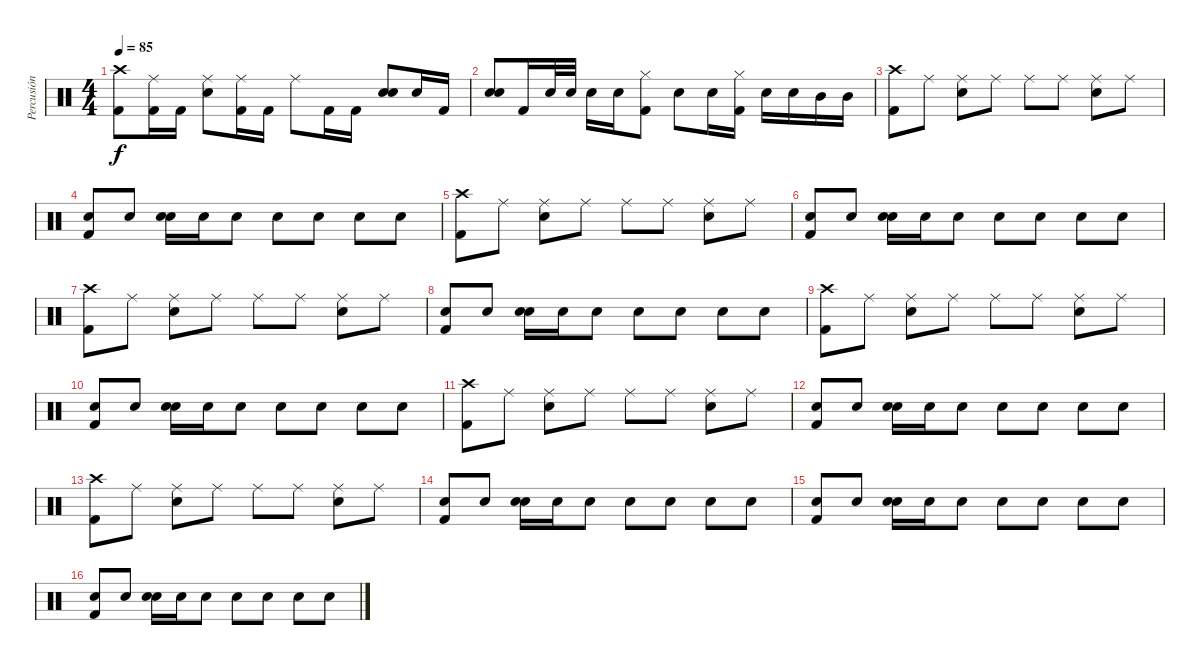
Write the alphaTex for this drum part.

\track ("Percusión" "Percusión") {instrument percussion}
\staff {score}
\articulation defaults
\ts (4 4)
\tempo 85
\clef neutral
\ks c
("Crash high (hit)"{x} "Kick (hit) 2").8{dy f} ("Ride (middle)"{x} "Kick (hit) 2").16 "Kick (hit) 2".16 ("Ride (middle)"{x} "Snare (hit) 2").8 ("Ride (middle)"{x} "Kick (hit) 2").16 "Kick (hit) 2".16 "Ride (middle)"{x}.8 "Kick (hit) 2".16 "Kick (hit) 2".16 ("Snare (hit)"{x} "Snare (hit) 2").8 "Snare (hit)"{x}.16 "Kick (hit) 2".16 |
("Snare (hit)"{x} "Snare (hit) 2").8 "Kick (hit) 2".16 "Snare (hit) 2".32 "Snare (hit) 2".32 "Snare (hit) 2".16 "Snare (hit) 2".16 ("Hi-Hat (closed)" "Kick (hit) 2").8 "Snare (hit) 2".8 "Snare (hit) 2".16 ("Hi-Hat (closed)" "Kick (hit) 2").16 "Snare (hit) 2".16 "Snare (hit) 2".16 "Mid Tom (hit)".16 "Mid Tom (hit)".16 |
("Crash high (hit)"{x} "Kick (hit) 2").8 "Ride (middle)"{x}.8 ("Ride (middle)"{x} "Snare (hit) 2").8 "Ride (middle)"{x}.8 "Ride (middle)"{x}.8 "Ride (middle)"{x}.8 ("Ride (middle)"{x} "Snare (hit) 2").8 "Ride (middle)"{x}.8 |
("Snare (hit)"{x} "Kick (hit) 2").8 "Snare (hit)"{x}.8 ("Snare (hit)"{x} "Snare (hit) 2").16 "Snare (hit) 2".16 "Snare (hit)"{x}.8 "Snare (hit)"{x}.8 "Snare (hit)"{x}.8 "Snare (hit)"{x}.8 "Snare (hit)"{x}.8 |
("Crash high (hit)"{x} "Kick (hit) 2").8 "Ride (middle)"{x}.8 ("Ride (middle)"{x} "Snare (hit) 2").8 "Ride (middle)"{x}.8 "Ride (middle)"{x}.8 "Ride (middle)"{x}.8 ("Ride (middle)"{x} "Snare (hit) 2").8 "Ride (middle)"{x}.8 |
("Snare (hit)"{x} "Kick (hit) 2").8 "Snare (hit)"{x}.8 ("Snare (hit)"{x} "Snare (hit) 2").16 "Snare (hit) 2".16 "Snare (hit)"{x}.8 "Snare (hit)"{x}.8 "Snare (hit)"{x}.8 "Snare (hit)"{x}.8 "Snare (hit)"{x}.8 |
("Crash high (hit)"{x} "Kick (hit) 2").8 "Ride (middle)"{x}.8 ("Ride (middle)"{x} "Snare (hit) 2").8 "Ride (middle)"{x}.8 "Ride (middle)"{x}.8 "Ride (middle)"{x}.8 ("Ride (middle)"{x} "Snare (hit) 2").8 "Ride (middle)"{x}.8 |
("Snare (hit)"{x} "Kick (hit) 2").8 "Snare (hit)"{x}.8 ("Snare (hit)"{x} "Snare (hit) 2").16 "Snare (hit) 2".16 "Snare (hit)"{x}.8 "Snare (hit)"{x}.8 "Snare (hit)"{x}.8 "Snare (hit)"{x}.8 "Snare (hit)"{x}.8 |
("Crash high (hit)"{x} "Kick (hit) 2").8 "Ride (middle)"{x}.8 ("Ride (middle)"{x} "Snare (hit) 2").8 "Ride (middle)"{x}.8 "Ride (middle)"{x}.8 "Ride (middle)"{x}.8 ("Ride (middle)"{x} "Snare (hit) 2").8 "Ride (middle)"{x}.8 |
("Snare (hit)"{x} "Kick (hit) 2").8 "Snare (hit)"{x}.8 ("Snare (hit)"{x} "Snare (hit) 2").16 "Snare (hit) 2".16 "Snare (hit)"{x}.8 "Snare (hit)"{x}.8 "Snare (hit)"{x}.8 "Snare (hit)"{x}.8 "Snare (hit)"{x}.8 |
("Crash high (hit)"{x} "Kick (hit) 2").8 "Ride (middle)"{x}.8 ("Ride (middle)"{x} "Snare (hit) 2").8 "Ride (middle)"{x}.8 "Ride (middle)"{x}.8 "Ride (middle)"{x}.8 ("Ride (middle)"{x} "Snare (hit) 2").8 "Ride (middle)"{x}.8 |
("Snare (hit)"{x} "Kick (hit) 2").8 "Snare (hit)"{x}.8 ("Snare (hit)"{x} "Snare (hit) 2").16 "Snare (hit) 2".16 "Snare (hit)"{x}.8 "Snare (hit)"{x}.8 "Snare (hit)"{x}.8 "Snare (hit)"{x}.8 "Snare (hit)"{x}.8 |
("Crash high (hit)"{x} "Kick (hit) 2").8 "Ride (middle)"{x}.8 ("Ride (middle)"{x} "Snare (hit) 2").8 "Ride (middle)"{x}.8 "Ride (middle)"{x}.8 "Ride (middle)"{x}.8 ("Ride (middle)"{x} "Snare (hit) 2").8 "Ride (middle)"{x}.8 |
("Snare (hit)"{x} "Kick (hit) 2").8 "Snare (hit)"{x}.8 ("Snare (hit)"{x} "Snare (hit) 2").16 "Snare (hit) 2".16 "Snare (hit)"{x}.8 "Snare (hit)"{x}.8 "Snare (hit)"{x}.8 "Snare (hit)"{x}.8 "Snare (hit)"{x}.8 |
("Snare (hit)"{x} "Kick (hit) 2").8 "Snare (hit)"{x}.8 ("Snare (hit)"{x} "Snare (hit) 2").16 "Snare (hit) 2".16 "Snare (hit)"{x}.8 "Snare (hit)"{x}.8 "Snare (hit)"{x}.8 "Snare (hit)"{x}.8 "Snare (hit)"{x}.8 |
("Snare (hit)"{x} "Kick (hit) 2").8 "Snare (hit)"{x}.8 ("Snare (hit)"{x} "Snare (hit) 2").16 "Snare (hit) 2".16 "Snare (hit)"{x}.8 "Snare (hit)"{x}.8 "Snare (hit)"{x}.8 "Snare (hit)"{x}.8 "Snare (hit)"{x}.8
